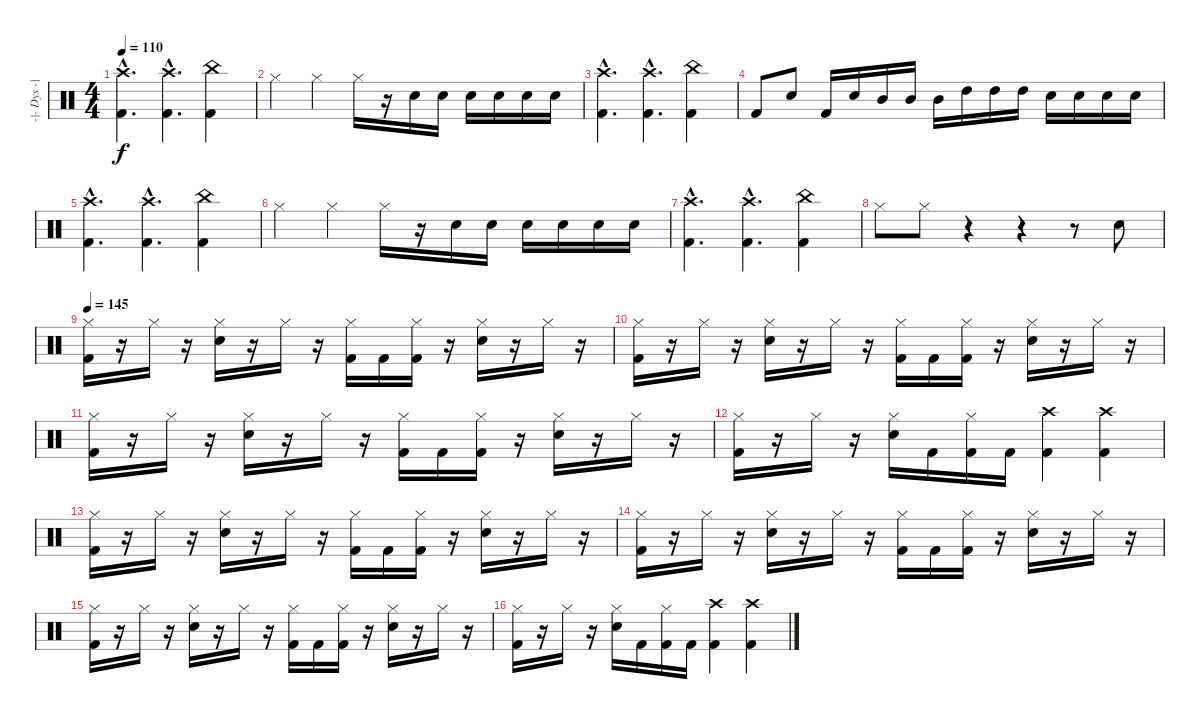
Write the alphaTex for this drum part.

\track ("-|- Dys -|-" "-|- Dys -|") {instrument percussion}
\staff {score}
\articulation defaults
\ts (4 4)
\tempo 110
\clef neutral
\ks c
("Crash high (hit)"{hac} "Kick (hit) 2"{hac}).4{d dy f} ("Crash high (hit)"{hac} "Kick (hit) 2"{hac}).4{d} ("China (hit)" "Kick (hit) 2").4 |
"Hi-Hat (closed)".4 "Hi-Hat (closed)".4 "Hi-Hat (closed)".16 r.16 "Snare (hit) 2".16 "Snare (hit) 2".16 "Snare (hit) 2".16 "Snare (hit) 2".16 "Snare (hit) 2".16 "Snare (hit) 2".16 |
("Crash high (hit)"{hac} "Kick (hit) 2"{hac}).4{d} ("Crash high (hit)"{hac} "Kick (hit) 2"{hac}).4{d} ("China (hit)" "Kick (hit) 2").4 |
"Kick (hit) 2".8 "Snare (hit) 2".8 "Kick (hit) 2".16 "Snare (hit) 2".16 "Mid Tom (hit)".16 "Mid Tom (hit)".16 "Mid Tom (hit)".16 "High Tom (hit)".16 "High Tom (hit)".16 "High Tom (hit)".16 "Snare (hit) 2".16 "Snare (hit) 2".16 "Snare (hit) 2".16 "Snare (hit) 2".16 |
("Crash high (hit)"{hac} "Kick (hit) 2"{hac}).4{d} ("Crash high (hit)"{hac} "Kick (hit) 2"{hac}).4{d} ("China (hit)" "Kick (hit) 2").4 |
"Hi-Hat (closed)".4 "Hi-Hat (closed)".4 "Hi-Hat (closed)".16 r.16 "Snare (hit) 2".16 "Snare (hit) 2".16 "Snare (hit) 2".16 "Snare (hit) 2".16 "Snare (hit) 2".16 "Snare (hit) 2".16 |
("Crash high (hit)"{hac} "Kick (hit) 2"{hac}).4{d} ("Crash high (hit)"{hac} "Kick (hit) 2"{hac}).4{d} ("China (hit)" "Kick (hit) 2").4 |
"Hi-Hat (closed)".8 "Hi-Hat (closed)".8 r.4 r.4 r.8 "Snare (hit) 2".8 |
\tempo 145
("Hi-Hat (closed)" "Kick (hit) 2").16 r.16 "Hi-Hat (closed)".16 r.16 ("Hi-Hat (closed)" "Snare (hit) 2").16 r.16 "Hi-Hat (closed)".16 r.16 ("Hi-Hat (closed)" "Kick (hit) 2").16 "Kick (hit) 2".16 ("Hi-Hat (closed)" "Kick (hit) 2").16 r.16 ("Hi-Hat (closed)" "Snare (hit) 2").16 r.16 "Hi-Hat (closed)".16 r.16 |
("Hi-Hat (closed)" "Kick (hit) 2").16 r.16 "Hi-Hat (closed)".16 r.16 ("Hi-Hat (closed)" "Snare (hit) 2").16 r.16 "Hi-Hat (closed)".16 r.16 ("Hi-Hat (closed)" "Kick (hit) 2").16 "Kick (hit) 2".16 ("Hi-Hat (closed)" "Kick (hit) 2").16 r.16 ("Hi-Hat (closed)" "Snare (hit) 2").16 r.16 "Hi-Hat (closed)".16 r.16 |
("Hi-Hat (closed)" "Kick (hit) 2").16 r.16 "Hi-Hat (closed)".16 r.16 ("Hi-Hat (closed)" "Snare (hit) 2").16 r.16 "Hi-Hat (closed)".16 r.16 ("Hi-Hat (closed)" "Kick (hit) 2").16 "Kick (hit) 2".16 ("Hi-Hat (closed)" "Kick (hit) 2").16 r.16 ("Hi-Hat (closed)" "Snare (hit) 2").16 r.16 "Hi-Hat (closed)".16 r.16 |
("Hi-Hat (closed)" "Kick (hit) 2").16 r.16 "Hi-Hat (closed)".16 r.16 ("Hi-Hat (closed)" "Snare (hit) 2").16 "Kick (hit) 2".16 ("Hi-Hat (closed)" "Kick (hit) 2").16 "Kick (hit) 2".16 ("Crash high (hit)" "Kick (hit) 2").4 ("Crash high (hit)" "Kick (hit) 2").4 |
("Hi-Hat (closed)" "Kick (hit) 2").16 r.16 "Hi-Hat (closed)".16 r.16 ("Hi-Hat (closed)" "Snare (hit) 2").16 r.16 "Hi-Hat (closed)".16 r.16 ("Hi-Hat (closed)" "Kick (hit) 2").16 "Kick (hit) 2".16 ("Hi-Hat (closed)" "Kick (hit) 2").16 r.16 ("Hi-Hat (closed)" "Snare (hit) 2").16 r.16 "Hi-Hat (closed)".16 r.16 |
("Hi-Hat (closed)" "Kick (hit) 2").16 r.16 "Hi-Hat (closed)".16 r.16 ("Hi-Hat (closed)" "Snare (hit) 2").16 r.16 "Hi-Hat (closed)".16 r.16 ("Hi-Hat (closed)" "Kick (hit) 2").16 "Kick (hit) 2".16 ("Hi-Hat (closed)" "Kick (hit) 2").16 r.16 ("Hi-Hat (closed)" "Snare (hit) 2").16 r.16 "Hi-Hat (closed)".16 r.16 |
("Hi-Hat (closed)" "Kick (hit) 2").16 r.16 "Hi-Hat (closed)".16 r.16 ("Hi-Hat (closed)" "Snare (hit) 2").16 r.16 "Hi-Hat (closed)".16 r.16 ("Hi-Hat (closed)" "Kick (hit) 2").16 "Kick (hit) 2".16 ("Hi-Hat (closed)" "Kick (hit) 2").16 r.16 ("Hi-Hat (closed)" "Snare (hit) 2").16 r.16 "Hi-Hat (closed)".16 r.16 |
("Hi-Hat (closed)" "Kick (hit) 2").16 r.16 "Hi-Hat (closed)".16 r.16 ("Hi-Hat (closed)" "Snare (hit) 2").16 "Kick (hit) 2".16 ("Hi-Hat (closed)" "Kick (hit) 2").16 "Kick (hit) 2".16 ("Crash high (hit)" "Kick (hit) 2").4 ("Crash high (hit)" "Kick (hit) 2").4
